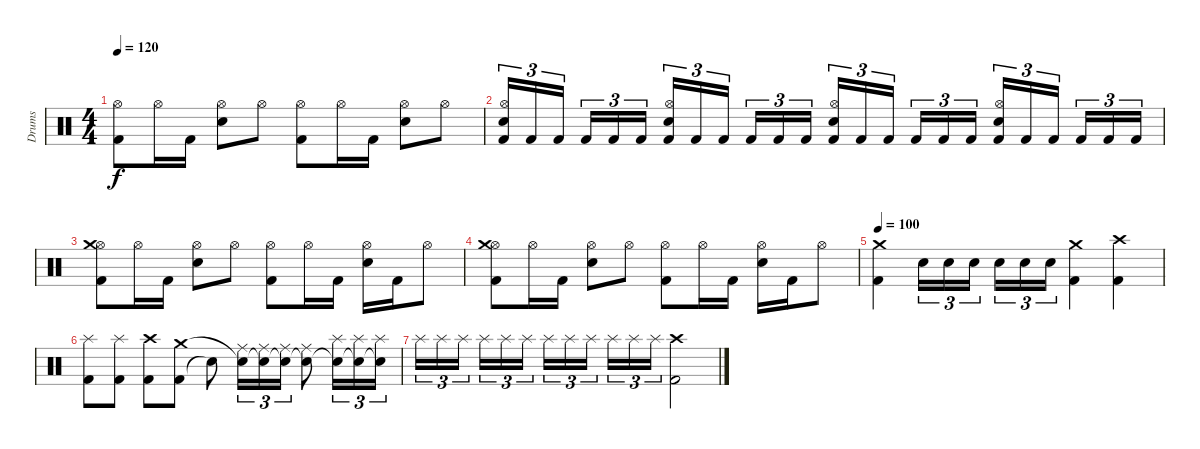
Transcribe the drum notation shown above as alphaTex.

\track ("Drums" "Drums") {instrument percussion}
\staff {score}
\articulation defaults
\ts (4 4)
\tempo 120
\clef neutral
\ks c
("Kick (hit) 2" "Hi-Hat (open)").8{dy f} "Hi-Hat (open)".16 "Kick (hit) 2".16 ("Electric Snare (hit)" "Hi-Hat (open)").8 "Hi-Hat (open)".8 ("Kick (hit) 2" "Hi-Hat (open)").8 "Hi-Hat (open)".16 "Kick (hit) 2".16 ("Electric Snare (hit)" "Hi-Hat (open)").8 "Hi-Hat (open)".8 |
("Kick (hit) 2" "Electric Snare (hit)" "Hi-Hat (open)").16{tu (3 2)} "Kick (hit) 2".16{tu (3 2)} "Kick (hit) 2".16{tu (3 2)} "Kick (hit) 2".16{tu (3 2)} "Kick (hit) 2".16{tu (3 2)} "Kick (hit) 2".16{tu (3 2)} ("Kick (hit) 2" "Electric Snare (hit)" "Hi-Hat (open)").16{tu (3 2)} "Kick (hit) 2".16{tu (3 2)} "Kick (hit) 2".16{tu (3 2)} "Kick (hit) 2".16{tu (3 2)} "Kick (hit) 2".16{tu (3 2)} "Kick (hit) 2".16{tu (3 2)} ("Kick (hit) 2" "Electric Snare (hit)" "Hi-Hat (open)").16{tu (3 2)} "Kick (hit) 2".16{tu (3 2)} "Kick (hit) 2".16{tu (3 2)} "Kick (hit) 2".16{tu (3 2)} "Kick (hit) 2".16{tu (3 2)} "Kick (hit) 2".16{tu (3 2)} ("Kick (hit) 2" "Electric Snare (hit)" "Hi-Hat (open)").16{tu (3 2)} "Kick (hit) 2".16{tu (3 2)} "Kick (hit) 2".16{tu (3 2)} "Kick (hit) 2".16{tu (3 2)} "Kick (hit) 2".16{tu (3 2)} "Kick (hit) 2".16{tu (3 2)} |
("Kick (hit) 2" "Hi-Hat (open)" "Crash medium (hit)").8 "Hi-Hat (open)".16 "Kick (hit) 2".16 ("Electric Snare (hit)" "Hi-Hat (open)").8 "Hi-Hat (open)".8 ("Kick (hit) 2" "Hi-Hat (open)").8 "Hi-Hat (open)".16 "Kick (hit) 2".16 ("Electric Snare (hit)" "Hi-Hat (open)").16 "Kick (hit) 2".16 "Hi-Hat (open)".8 |
("Kick (hit) 2" "Hi-Hat (open)" "Crash medium (hit)").8 "Hi-Hat (open)".16 "Kick (hit) 2".16 ("Electric Snare (hit)" "Hi-Hat (open)").8 "Hi-Hat (open)".8 ("Kick (hit) 2" "Hi-Hat (open)").8 "Hi-Hat (open)".16 "Kick (hit) 2".16 ("Electric Snare (hit)" "Hi-Hat (open)").16 "Kick (hit) 2".16 "Hi-Hat (open)".8 |
\tempo 100
("Kick (hit) 2" "Crash medium (hit)").4 "Snare (hit) 2".16{tu (3 2)} "Snare (hit) 2".16{tu (3 2)} "Snare (hit) 2".16{tu (3 2)} "Snare (hit) 2".16{tu (3 2)} "Snare (hit) 2".16{tu (3 2)} "Snare (hit) 2".16{tu (3 2)} ("Kick (hit) 2" "Crash medium (hit)").4 ("Kick (hit) 2" "Crash high (hit)").4 |
("Kick (hit) 2" "Splash (hit)").8 ("Kick (hit) 2" "Splash (hit)").8 ("Kick (hit) 2" "Crash high (hit)").8 ("Kick (hit) 2" "Crash medium (hit)").8 "Snare (hit)"{t}.8 ("Ride (middle)" "Snare (hit)"{t}).16{tu (3 2)} ("Ride (middle)" "Snare (hit)"{t}).16{tu (3 2)} ("Ride (middle)" "Snare (hit)"{t}).16{tu (3 2)} ("Ride (middle)" "Snare (hit)"{t}).8 ("Splash (hit)" "Snare (hit)"{t}).16{tu (3 2)} ("Splash (hit)" "Snare (hit)"{t}).16{tu (3 2)} ("Splash (hit)" "Snare (hit)"{t}).16{tu (3 2)} |
"Splash (hit)".16{tu (3 2)} "Splash (hit)".16{tu (3 2)} "Splash (hit)".16{tu (3 2)} "Splash (hit)".16{tu (3 2)} "Splash (hit)".16{tu (3 2)} "Splash (hit)".16{tu (3 2)} "Splash (hit)".16{tu (3 2)} "Splash (hit)".16{tu (3 2)} "Splash (hit)".16{tu (3 2)} "Splash (hit)".16{tu (3 2)} "Splash (hit)".16{tu (3 2)} "Splash (hit)".16{tu (3 2)} ("Kick (hit) 2" "Crash high (hit)").2
